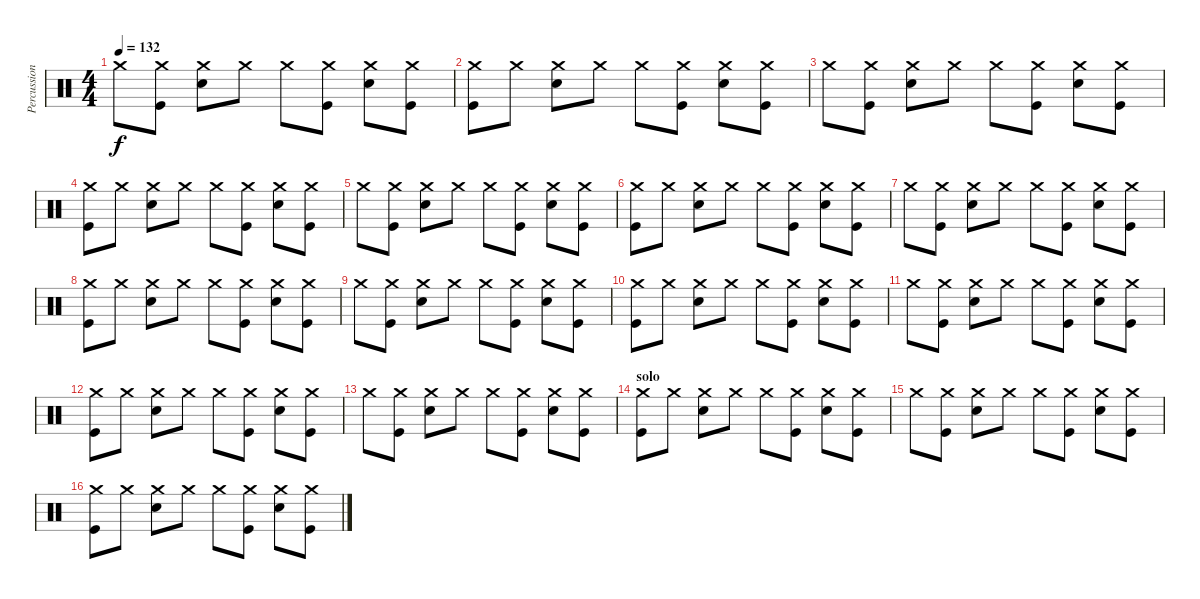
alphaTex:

\track ("Percussion" "Percussion") {instrument percussion}
\staff {score}
\articulation defaults
\ts (4 4)
\tempo 132
\clef neutral
\ks c "Crash medium (hit)".8{dy f}
("Crash medium (hit)" "Kick (hit)").8 ("Crash medium (hit)" "Snare (hit) 2").8 "Crash medium (hit)".8 "Crash medium (hit)".8 ("Crash medium (hit)" "Kick (hit)").8 ("Crash medium (hit)" "Snare (hit) 2").8 ("Crash medium (hit)" "Kick (hit)").8 |
("Crash medium (hit)" "Kick (hit)").8 "Crash medium (hit)".8 ("Crash medium (hit)" "Snare (hit) 2").8 "Crash medium (hit)".8 "Crash medium (hit)".8 ("Crash medium (hit)" "Kick (hit)").8 ("Crash medium (hit)" "Snare (hit) 2").8 ("Crash medium (hit)" "Kick (hit)").8 |
"Crash medium (hit)".8 ("Crash medium (hit)" "Kick (hit)").8 ("Crash medium (hit)" "Snare (hit) 2").8 "Crash medium (hit)".8 "Crash medium (hit)".8 ("Crash medium (hit)" "Kick (hit)").8 ("Crash medium (hit)" "Snare (hit) 2").8 ("Crash medium (hit)" "Kick (hit)").8 |
("Crash medium (hit)" "Kick (hit)").8 "Crash medium (hit)".8 ("Crash medium (hit)" "Snare (hit) 2").8 "Crash medium (hit)".8 "Crash medium (hit)".8 ("Crash medium (hit)" "Kick (hit)").8 ("Crash medium (hit)" "Snare (hit) 2").8 ("Crash medium (hit)" "Kick (hit)").8 |
"Crash medium (hit)".8 ("Crash medium (hit)" "Kick (hit)").8 ("Crash medium (hit)" "Snare (hit) 2").8 "Crash medium (hit)".8 "Crash medium (hit)".8 ("Crash medium (hit)" "Kick (hit)").8 ("Crash medium (hit)" "Snare (hit) 2").8 ("Crash medium (hit)" "Kick (hit)").8 |
("Crash medium (hit)" "Kick (hit)").8 "Crash medium (hit)".8 ("Crash medium (hit)" "Snare (hit) 2").8 "Crash medium (hit)".8 "Crash medium (hit)".8 ("Crash medium (hit)" "Kick (hit)").8 ("Crash medium (hit)" "Snare (hit) 2").8 ("Crash medium (hit)" "Kick (hit)").8 |
"Crash medium (hit)".8 ("Crash medium (hit)" "Kick (hit)").8 ("Crash medium (hit)" "Snare (hit) 2").8 "Crash medium (hit)".8 "Crash medium (hit)".8 ("Crash medium (hit)" "Kick (hit)").8 ("Crash medium (hit)" "Snare (hit) 2").8 ("Crash medium (hit)" "Kick (hit)").8 |
("Crash medium (hit)" "Kick (hit)").8 "Crash medium (hit)".8 ("Crash medium (hit)" "Snare (hit) 2").8 "Crash medium (hit)".8 "Crash medium (hit)".8 ("Crash medium (hit)" "Kick (hit)").8 ("Crash medium (hit)" "Snare (hit) 2").8 ("Crash medium (hit)" "Kick (hit)").8 |
"Crash medium (hit)".8 ("Crash medium (hit)" "Kick (hit)").8 ("Crash medium (hit)" "Snare (hit) 2").8 "Crash medium (hit)".8 "Crash medium (hit)".8 ("Crash medium (hit)" "Kick (hit)").8 ("Crash medium (hit)" "Snare (hit) 2").8 ("Crash medium (hit)" "Kick (hit)").8 |
("Crash medium (hit)" "Kick (hit)").8 "Crash medium (hit)".8 ("Crash medium (hit)" "Snare (hit) 2").8 "Crash medium (hit)".8 "Crash medium (hit)".8 ("Crash medium (hit)" "Kick (hit)").8 ("Crash medium (hit)" "Snare (hit) 2").8 ("Crash medium (hit)" "Kick (hit)").8 |
"Crash medium (hit)".8 ("Crash medium (hit)" "Kick (hit)").8 ("Crash medium (hit)" "Snare (hit) 2").8 "Crash medium (hit)".8 "Crash medium (hit)".8 ("Crash medium (hit)" "Kick (hit)").8 ("Crash medium (hit)" "Snare (hit) 2").8 ("Crash medium (hit)" "Kick (hit)").8 |
("Crash medium (hit)" "Kick (hit)").8 "Crash medium (hit)".8 ("Crash medium (hit)" "Snare (hit) 2").8 "Crash medium (hit)".8 "Crash medium (hit)".8 ("Crash medium (hit)" "Kick (hit)").8 ("Crash medium (hit)" "Snare (hit) 2").8 ("Crash medium (hit)" "Kick (hit)").8 |
"Crash medium (hit)".8 ("Crash medium (hit)" "Kick (hit)").8 ("Crash medium (hit)" "Snare (hit) 2").8 "Crash medium (hit)".8 "Crash medium (hit)".8 ("Crash medium (hit)" "Kick (hit)").8 ("Crash medium (hit)" "Snare (hit) 2").8 ("Crash medium (hit)" "Kick (hit)").8 |
\section ("" "solo")
("Crash medium (hit)" "Kick (hit)").8 "Crash medium (hit)".8 ("Crash medium (hit)" "Snare (hit) 2").8 "Crash medium (hit)".8 "Crash medium (hit)".8 ("Crash medium (hit)" "Kick (hit)").8 ("Crash medium (hit)" "Snare (hit) 2").8 ("Crash medium (hit)" "Kick (hit)").8 |
"Crash medium (hit)".8 ("Crash medium (hit)" "Kick (hit)").8 ("Crash medium (hit)" "Snare (hit) 2").8 "Crash medium (hit)".8 "Crash medium (hit)".8 ("Crash medium (hit)" "Kick (hit)").8 ("Crash medium (hit)" "Snare (hit) 2").8 ("Crash medium (hit)" "Kick (hit)").8 |
("Crash medium (hit)" "Kick (hit)").8 "Crash medium (hit)".8 ("Crash medium (hit)" "Snare (hit) 2").8 "Crash medium (hit)".8 "Crash medium (hit)".8 ("Crash medium (hit)" "Kick (hit)").8 ("Crash medium (hit)" "Snare (hit) 2").8 ("Crash medium (hit)" "Kick (hit)").8
